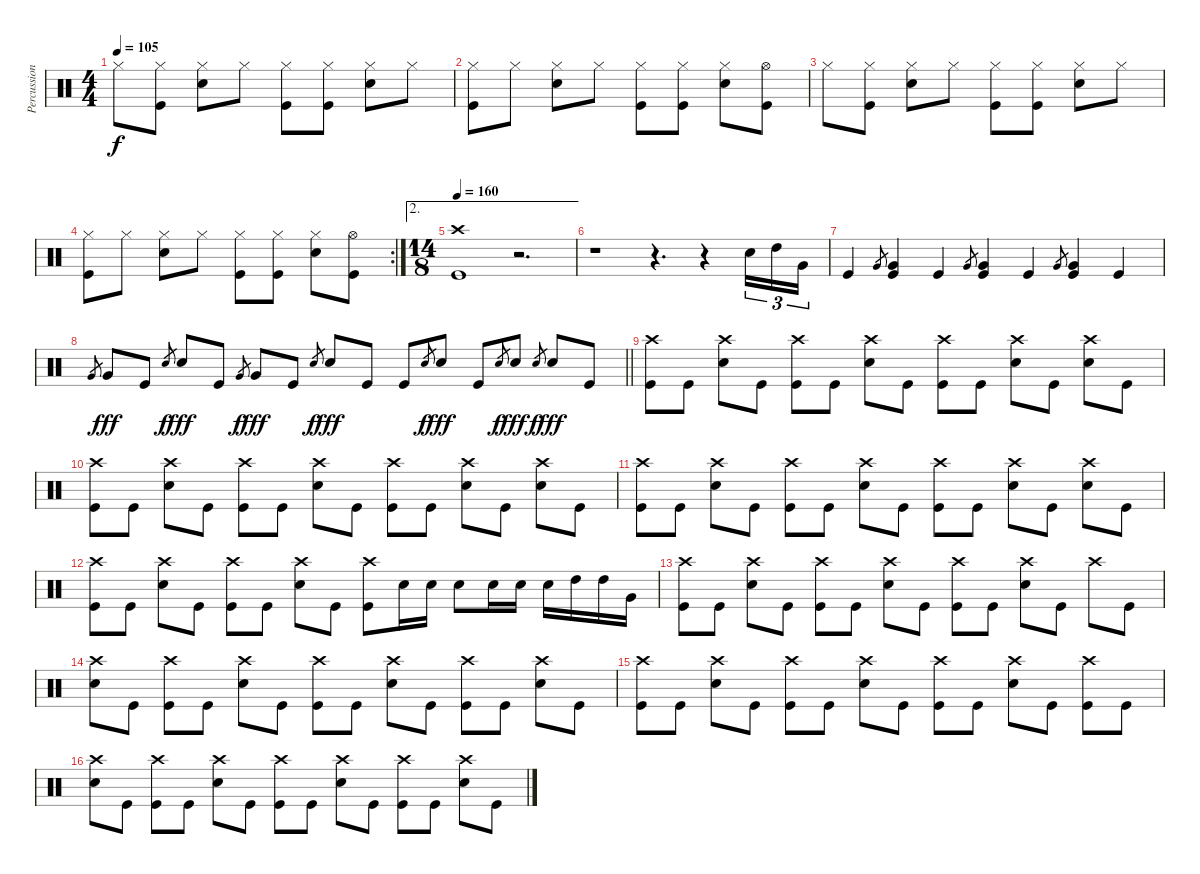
\track ("Percussions" "Percussion") {instrument percussion}
\staff {score}
\articulation defaults
\ts (4 4)
\tempo 105
\clef neutral
\ks c "Hi-Hat (closed)".8{dy f}
("Hi-Hat (closed)" "Kick (hit)").8 ("Snare (hit) 2" "Hi-Hat (closed)").8 "Hi-Hat (closed)".8 ("Kick (hit)" "Hi-Hat (closed)").8 ("Kick (hit)" "Hi-Hat (closed)").8 ("Snare (hit) 2" "Hi-Hat (closed)").8 "Hi-Hat (closed)".8 |
("Kick (hit)" "Hi-Hat (closed)").8 "Hi-Hat (closed)".8 ("Snare (hit) 2" "Hi-Hat (closed)").8 "Hi-Hat (closed)".8 ("Kick (hit)" "Hi-Hat (closed)").8 ("Kick (hit)" "Hi-Hat (closed)").8 ("Snare (hit) 2" "Hi-Hat (closed)").8 ("Kick (hit)" "Hi-Hat (open)").8 |
"Hi-Hat (closed)".8 ("Hi-Hat (closed)" "Kick (hit)").8 ("Snare (hit) 2" "Hi-Hat (closed)").8 "Hi-Hat (closed)".8 ("Kick (hit)" "Hi-Hat (closed)").8 ("Kick (hit)" "Hi-Hat (closed)").8 ("Snare (hit) 2" "Hi-Hat (closed)").8 "Hi-Hat (closed)".8 |
\rc 2
("Kick (hit)" "Hi-Hat (closed)").8 "Hi-Hat (closed)".8 ("Snare (hit) 2" "Hi-Hat (closed)").8 "Hi-Hat (closed)".8 ("Kick (hit)" "Hi-Hat (closed)").8 ("Kick (hit)" "Hi-Hat (closed)").8 ("Snare (hit) 2" "Hi-Hat (closed)").8 ("Kick (hit)" "Hi-Hat (open)").8 |
\ae 2
\ts (14 8)
\tempo 160
("Kick (hit)" "Crash high (hit)").1 r.2{d} |
r.1 r.4{d} r.4 "Snare (hit) 2".16{tu (3 2)} "High Tom (hit)".16{tu (3 2)} "Very Low Tom (hit)".16{tu (3 2)} |
"Kick (hit)".4 "Very Low Tom (hit)".8{gr} ("Kick (hit)" "Very Low Tom (hit)").4 "Kick (hit)".4 "Very Low Tom (hit)".8{gr} ("Very Low Tom (hit)" "Kick (hit)").4 "Kick (hit)".4 "Very Low Tom (hit)".8{gr} ("Very Low Tom (hit)" "Kick (hit)").4 "Kick (hit)".4 |
\barLineRight lightlight "Very Low Tom (hit)".8{gr} "Very Low Tom (hit)".8{dy fff} "Kick (hit)".8 "Snare (hit) 2".8{gr dy f} "Snare (hit) 2".8{dy fff} "Kick (hit)".8 "Very Low Tom (hit)".8{gr dy f} "Very Low Tom (hit)".8{dy fff} "Kick (hit)".8 "Snare (hit) 2".8{gr dy f} "Snare (hit) 2".8{dy fff} "Kick (hit)".8 "Kick (hit)".8 "Snare (hit) 2".8{gr dy f} "Snare (hit) 2".8{dy fff} "Kick (hit)".8 "Snare (hit) 2".8{gr dy f} "Snare (hit) 2".8{dy fff} "Snare (hit) 2".8{gr dy f} "Snare (hit) 2".8{dy fff} "Kick (hit)".8
|
("Kick (hit)" "Crash high (hit)").8 "Kick (hit)".8 ("Snare (hit) 2" "Crash high (hit)").8 "Kick (hit)".8 ("Kick (hit)" "Crash high (hit)").8 "Kick (hit)".8 ("Snare (hit) 2" "Crash high (hit)").8 "Kick (hit)".8 ("Kick (hit)" "Crash high (hit)").8 "Kick (hit)".8 ("Snare (hit) 2" "Crash high (hit)").8 "Kick (hit)".8 ("Snare (hit) 2" "Crash high (hit)").8 "Kick (hit)".8 |
("Kick (hit)" "Crash high (hit)").8 "Kick (hit)".8 ("Snare (hit) 2" "Crash high (hit)").8 "Kick (hit)".8 ("Kick (hit)" "Crash high (hit)").8 "Kick (hit)".8 ("Snare (hit) 2" "Crash high (hit)").8 "Kick (hit)".8 ("Kick (hit)" "Crash high (hit)").8 "Kick (hit)".8 ("Snare (hit) 2" "Crash high (hit)").8 "Kick (hit)".8 ("Snare (hit) 2" "Crash high (hit)").8 "Kick (hit)".8 |
("Kick (hit)" "Crash high (hit)").8 "Kick (hit)".8 ("Snare (hit) 2" "Crash high (hit)").8 "Kick (hit)".8 ("Kick (hit)" "Crash high (hit)").8 "Kick (hit)".8 ("Snare (hit) 2" "Crash high (hit)").8 "Kick (hit)".8 ("Kick (hit)" "Crash high (hit)").8 "Kick (hit)".8 ("Snare (hit) 2" "Crash high (hit)").8 "Kick (hit)".8 ("Snare (hit) 2" "Crash high (hit)").8 "Kick (hit)".8 |
("Kick (hit)" "Crash high (hit)").8 "Kick (hit)".8 ("Snare (hit) 2" "Crash high (hit)").8 "Kick (hit)".8 ("Kick (hit)" "Crash high (hit)").8 "Kick (hit)".8 ("Snare (hit) 2" "Crash high (hit)").8 "Kick (hit)".8 ("Crash high (hit)" "Kick (hit)").8 "Snare (hit) 2".16 "Snare (hit) 2".16 "Snare (hit) 2".8 "Snare (hit) 2".16 "Snare (hit) 2".16 "Snare (hit) 2".16 "High Tom (hit)".16 "High Tom (hit)".16 "Very Low Tom (hit)".16 |
("Kick (hit)" "Crash high (hit)").8 "Kick (hit)".8 ("Snare (hit) 2" "Crash high (hit)").8 "Kick (hit)".8 ("Kick (hit)" "Crash high (hit)").8 "Kick (hit)".8 ("Snare (hit) 2" "Crash high (hit)").8 "Kick (hit)".8 ("Kick (hit)" "Crash high (hit)").8 "Kick (hit)".8 ("Snare (hit) 2" "Crash high (hit)").8 "Kick (hit)".8 "Crash high (hit)".8 "Kick (hit)".8 |
("Snare (hit) 2" "Crash high (hit)").8 "Kick (hit)".8 ("Kick (hit)" "Crash high (hit)").8 "Kick (hit)".8 ("Snare (hit) 2" "Crash high (hit)").8 "Kick (hit)".8 ("Kick (hit)" "Crash high (hit)").8 "Kick (hit)".8 ("Snare (hit) 2" "Crash high (hit)").8 "Kick (hit)".8 ("Kick (hit)" "Crash high (hit)").8 "Kick (hit)".8 ("Snare (hit) 2" "Crash high (hit)").8 "Kick (hit)".8 |
("Kick (hit)" "Crash high (hit)").8 "Kick (hit)".8 ("Snare (hit) 2" "Crash high (hit)").8 "Kick (hit)".8 ("Kick (hit)" "Crash high (hit)").8 "Kick (hit)".8 ("Snare (hit) 2" "Crash high (hit)").8 "Kick (hit)".8 ("Kick (hit)" "Crash high (hit)").8 "Kick (hit)".8 ("Snare (hit) 2" "Crash high (hit)").8 "Kick (hit)".8 ("Kick (hit)" "Crash high (hit)").8 "Kick (hit)".8 |
("Snare (hit) 2" "Crash high (hit)").8 "Kick (hit)".8 ("Kick (hit)" "Crash high (hit)").8 "Kick (hit)".8 ("Snare (hit) 2" "Crash high (hit)").8 "Kick (hit)".8 ("Kick (hit)" "Crash high (hit)").8 "Kick (hit)".8 ("Snare (hit) 2" "Crash high (hit)").8 "Kick (hit)".8 ("Kick (hit)" "Crash high (hit)").8 "Kick (hit)".8 ("Snare (hit) 2" "Crash high (hit)").8 "Kick (hit)".8
